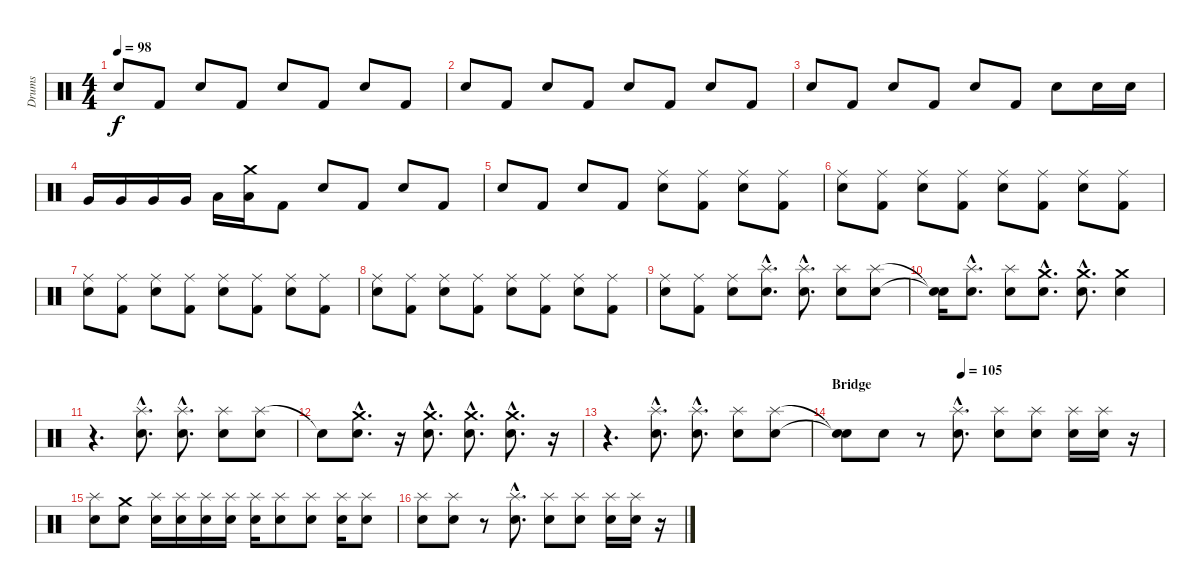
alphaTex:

\track ("Drums" "Drums") {instrument percussion}
\staff {score}
\articulation defaults
\ts (4 4)
\tempo 98
\clef neutral
\ks c "Snare (hit) 2".8{dy f} "Kick (hit) 2".8 "Snare (hit) 2".8 "Kick (hit) 2".8 "Snare (hit) 2".8 "Kick (hit) 2".8 "Snare (hit) 2".8 "Kick (hit) 2".8
|
"Snare (hit) 2".8 "Kick (hit) 2".8 "Snare (hit) 2".8 "Kick (hit) 2".8 "Snare (hit) 2".8 "Kick (hit) 2".8 "Snare (hit) 2".8 "Kick (hit) 2".8 |
"Snare (hit) 2".8 "Kick (hit) 2".8 "Snare (hit) 2".8 "Kick (hit) 2".8 "Snare (hit) 2".8 "Kick (hit) 2".8 "Snare (hit) 2".8 "Snare (hit) 2".16 "Snare (hit) 2".16 |
"Very Low Tom (hit)".16 "Very Low Tom (hit)".16 "Very Low Tom (hit)".16 "Very Low Tom (hit)".16 "Low Floor Tom (hit)".16 ("Crash medium (hit)" "Low Floor Tom (hit)").16 "Kick (hit) 2".8 "Snare (hit) 2".8 "Kick (hit) 2".8 "Snare (hit) 2".8 "Kick (hit) 2".8 |
"Snare (hit) 2".8 "Kick (hit) 2".8 "Snare (hit) 2".8 "Kick (hit) 2".8 ("Ride (middle)" "Snare (hit) 2").8 ("Ride (middle)" "Kick (hit) 2").8 ("Ride (middle)" "Snare (hit) 2").8 ("Ride (middle)" "Kick (hit) 2").8 |
("Ride (middle)" "Snare (hit) 2").8 ("Ride (middle)" "Kick (hit) 2").8 ("Ride (middle)" "Snare (hit) 2").8 ("Ride (middle)" "Kick (hit) 2").8 ("Ride (middle)" "Snare (hit) 2").8 ("Ride (middle)" "Kick (hit) 2").8 ("Ride (middle)" "Snare (hit) 2").8 ("Ride (middle)" "Kick (hit) 2").8 |
("Ride (middle)" "Snare (hit) 2").8 ("Ride (middle)" "Kick (hit) 2").8 ("Ride (middle)" "Snare (hit) 2").8 ("Ride (middle)" "Kick (hit) 2").8 ("Ride (middle)" "Snare (hit) 2").8 ("Ride (middle)" "Kick (hit) 2").8 ("Ride (middle)" "Snare (hit) 2").8 ("Ride (middle)" "Kick (hit) 2").8 |
("Ride (middle)" "Snare (hit) 2").8 ("Ride (middle)" "Kick (hit) 2").8 ("Ride (middle)" "Snare (hit) 2").8 ("Ride (middle)" "Kick (hit) 2").8 ("Ride (middle)" "Snare (hit) 2").8 ("Ride (middle)" "Kick (hit) 2").8 ("Ride (middle)" "Snare (hit) 2").8 ("Ride (middle)" "Kick (hit) 2").8 |
("Ride (middle)" "Snare (hit) 2").8 ("Ride (middle)" "Kick (hit) 2").8 ("Ride (middle)" "Snare (hit) 2").8 ("Splash (hit)"{hac} "Snare (hit) 2"{hac}).8{d} ("Splash (hit)"{hac} "Snare (hit) 2"{hac}).8{d} ("Splash (hit)" "Snare (hit) 2").8 ("Splash (hit)" "Snare (hit) 2").8 |
("Snare (hit)"{t} "Snare (hit)"{t}).16 ("Splash (hit)"{hac} "Snare (hit) 2"{hac}).8{d} ("Splash (hit)" "Snare (hit) 2").8 ("Crash medium (hit)"{hac} "Snare (hit) 2"{hac}).8{d} ("Crash medium (hit)"{hac} "Snare (hit) 2"{hac}).8{d} ("Crash medium (hit)" "Snare (hit) 2").4 |
r.4{d} ("Splash (hit)"{hac} "Snare (hit) 2"{hac}).8{d} ("Splash (hit)"{hac} "Snare (hit) 2"{hac}).8{d} ("Splash (hit)" "Snare (hit) 2").8 ("Splash (hit)" "Snare (hit) 2").8 |
"Snare (hit)"{t}.8 ("Crash medium (hit)"{hac} "Snare (hit) 2"{hac}).8{d} r.16 ("Crash medium (hit)"{hac} "Snare (hit) 2"{hac}).8{d} ("Crash medium (hit)"{hac} "Snare (hit) 2"{hac}).8{d} ("Crash medium (hit)"{hac} "Snare (hit) 2"{hac}).8{d} r.16 |
r.4{d} ("Splash (hit)"{hac} "Snare (hit) 2"{hac}).8{d} ("Splash (hit)"{hac} "Snare (hit) 2"{hac}).8{d} ("Splash (hit)" "Snare (hit) 2").8 ("Splash (hit)" "Snare (hit) 2").8 |
\section ("" "Bridge")
\tempo (105 0.375)
("Snare (hit)"{t} "Snare (hit)"{t}).8 "Snare (hit) 2".8 r.8 ("Splash (hit)"{hac} "Snare (hit) 2"{hac}).8{d} ("Splash (hit)" "Snare (hit) 2").8 ("Splash (hit)" "Snare (hit) 2").8 ("Splash (hit)" "Snare (hit) 2").16 ("Splash (hit)" "Snare (hit) 2").16 r.16 |
("Splash (hit)" "Snare (hit) 2").8 ("Crash medium (hit)" "Snare (hit) 2").8 ("Splash (hit)" "Snare (hit) 2").16 ("Splash (hit)" "Snare (hit) 2").16 ("Splash (hit)" "Snare (hit) 2").16 ("Splash (hit)" "Snare (hit) 2").16 ("Splash (hit)" "Snare (hit) 2").16 ("Splash (hit)" "Snare (hit) 2").8 ("Splash (hit)" "Snare (hit) 2").8 ("Splash (hit)" "Snare (hit) 2").16 ("Splash (hit)" "Snare (hit) 2").8 |
("Splash (hit)" "Snare (hit) 2").8 ("Splash (hit)" "Snare (hit) 2").8 r.8 ("Splash (hit)"{hac} "Snare (hit) 2"{hac}).8{d} ("Splash (hit)" "Snare (hit) 2").8 ("Splash (hit)" "Snare (hit) 2").8 ("Splash (hit)" "Snare (hit) 2").16 ("Splash (hit)" "Snare (hit) 2").16 r.16
